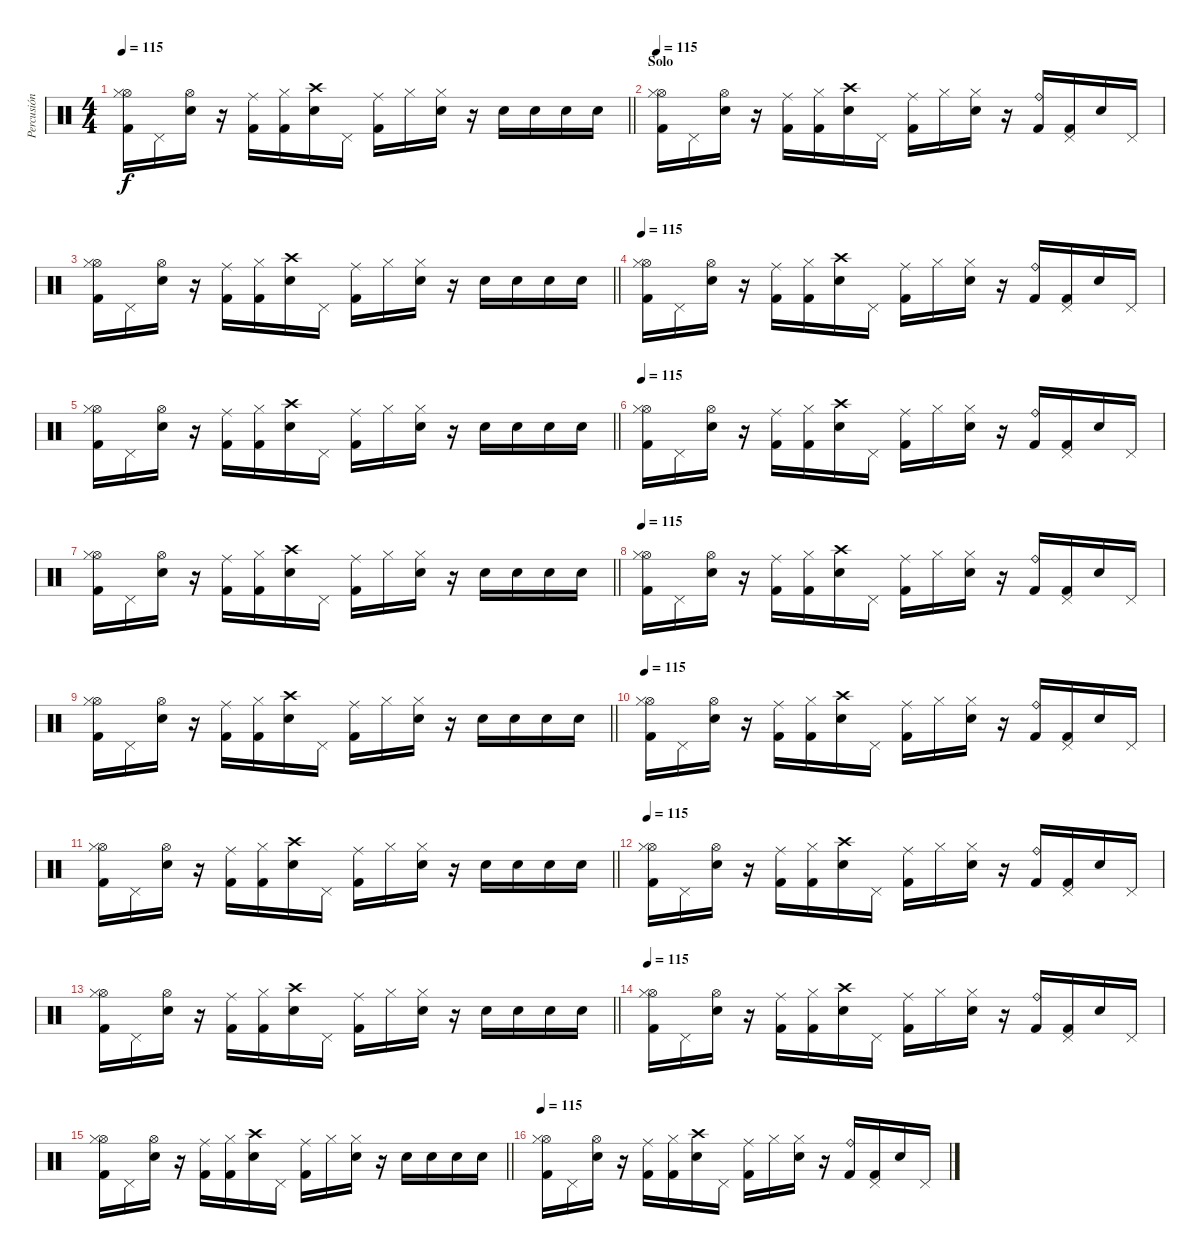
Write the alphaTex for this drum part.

\track ("Percusión" "Percusión") {instrument percussion}
\staff {score}
\articulation defaults
\ts (4 4)
\tempo 115
\clef neutral
\barLineRight lightlight
\ks c
("Kick (hit) 2" "Hi-Hat (open)" "Hi-Hat (closed)").16{dy f} "Pedal Hi-Hat (hit)".16 ("Hi-Hat (open)" "Electric Snare (hit)").16 r.16 ("Kick (hit) 2" "Ride (middle)").16 ("Kick (hit) 2" "Hi-Hat (closed)").16 ("Crash high (hit)" "Electric Snare (hit)").16 "Pedal Hi-Hat (hit)".16 ("Kick (hit) 2" "Ride (middle)").16 "Hi-Hat (closed)".16 ("Electric Snare (hit)" "Hi-Hat (closed)").16 r.16 "Electric Snare (hit)".16 "Electric Snare (hit)".16 "Electric Snare (hit)".16 "Electric Snare (hit)".16 |
\section ("" "Solo")
\tempo 115
("Kick (hit) 2" "Hi-Hat (open)" "Hi-Hat (closed)").16 "Pedal Hi-Hat (hit)".16 ("Hi-Hat (open)" "Electric Snare (hit)").16 r.16 ("Kick (hit) 2" "Ride (middle)").16 ("Kick (hit) 2" "Hi-Hat (closed)").16 ("Crash high (hit)" "Electric Snare (hit)").16 "Pedal Hi-Hat (hit)".16 ("Kick (hit) 2" "Ride (middle)").16 "Hi-Hat (closed)".16 ("Electric Snare (hit)" "Hi-Hat (closed)").16 r.16 ("Kick (hit) 2" "Ride (bell)").16 ("Kick (hit) 2" "Pedal Hi-Hat (hit)").16 "Electric Snare (hit)".16 "Pedal Hi-Hat (hit)".16 |
\barLineRight lightlight
("Kick (hit) 2" "Hi-Hat (open)" "Hi-Hat (closed)").16 "Pedal Hi-Hat (hit)".16 ("Hi-Hat (open)" "Electric Snare (hit)").16 r.16 ("Kick (hit) 2" "Ride (middle)").16 ("Kick (hit) 2" "Hi-Hat (closed)").16 ("Crash high (hit)" "Electric Snare (hit)").16 "Pedal Hi-Hat (hit)".16 ("Kick (hit) 2" "Ride (middle)").16 "Hi-Hat (closed)".16 ("Electric Snare (hit)" "Hi-Hat (closed)").16 r.16 "Electric Snare (hit)".16 "Electric Snare (hit)".16 "Electric Snare (hit)".16 "Electric Snare (hit)".16 |
\tempo 115
("Kick (hit) 2" "Hi-Hat (open)" "Hi-Hat (closed)").16 "Pedal Hi-Hat (hit)".16 ("Hi-Hat (open)" "Electric Snare (hit)").16 r.16 ("Kick (hit) 2" "Ride (middle)").16 ("Kick (hit) 2" "Hi-Hat (closed)").16 ("Crash high (hit)" "Electric Snare (hit)").16 "Pedal Hi-Hat (hit)".16 ("Kick (hit) 2" "Ride (middle)").16 "Hi-Hat (closed)".16 ("Electric Snare (hit)" "Hi-Hat (closed)").16 r.16 ("Kick (hit) 2" "Ride (bell)").16 ("Kick (hit) 2" "Pedal Hi-Hat (hit)").16 "Electric Snare (hit)".16 "Pedal Hi-Hat (hit)".16 |
\barLineRight lightlight
("Kick (hit) 2" "Hi-Hat (open)" "Hi-Hat (closed)").16 "Pedal Hi-Hat (hit)".16 ("Hi-Hat (open)" "Electric Snare (hit)").16 r.16 ("Kick (hit) 2" "Ride (middle)").16 ("Kick (hit) 2" "Hi-Hat (closed)").16 ("Crash high (hit)" "Electric Snare (hit)").16 "Pedal Hi-Hat (hit)".16 ("Kick (hit) 2" "Ride (middle)").16 "Hi-Hat (closed)".16 ("Electric Snare (hit)" "Hi-Hat (closed)").16 r.16 "Electric Snare (hit)".16 "Electric Snare (hit)".16 "Electric Snare (hit)".16 "Electric Snare (hit)".16 |
\tempo 115
("Kick (hit) 2" "Hi-Hat (open)" "Hi-Hat (closed)").16 "Pedal Hi-Hat (hit)".16 ("Hi-Hat (open)" "Electric Snare (hit)").16 r.16 ("Kick (hit) 2" "Ride (middle)").16 ("Kick (hit) 2" "Hi-Hat (closed)").16 ("Crash high (hit)" "Electric Snare (hit)").16 "Pedal Hi-Hat (hit)".16 ("Kick (hit) 2" "Ride (middle)").16 "Hi-Hat (closed)".16 ("Electric Snare (hit)" "Hi-Hat (closed)").16 r.16 ("Kick (hit) 2" "Ride (bell)").16 ("Kick (hit) 2" "Pedal Hi-Hat (hit)").16 "Electric Snare (hit)".16 "Pedal Hi-Hat (hit)".16 |
\barLineRight lightlight
("Kick (hit) 2" "Hi-Hat (open)" "Hi-Hat (closed)").16 "Pedal Hi-Hat (hit)".16 ("Hi-Hat (open)" "Electric Snare (hit)").16 r.16 ("Kick (hit) 2" "Ride (middle)").16 ("Kick (hit) 2" "Hi-Hat (closed)").16 ("Crash high (hit)" "Electric Snare (hit)").16 "Pedal Hi-Hat (hit)".16 ("Kick (hit) 2" "Ride (middle)").16 "Hi-Hat (closed)".16 ("Electric Snare (hit)" "Hi-Hat (closed)").16 r.16 "Electric Snare (hit)".16 "Electric Snare (hit)".16 "Electric Snare (hit)".16 "Electric Snare (hit)".16 |
\tempo 115
("Kick (hit) 2" "Hi-Hat (open)" "Hi-Hat (closed)").16 "Pedal Hi-Hat (hit)".16 ("Hi-Hat (open)" "Electric Snare (hit)").16 r.16 ("Kick (hit) 2" "Ride (middle)").16 ("Kick (hit) 2" "Hi-Hat (closed)").16 ("Crash high (hit)" "Electric Snare (hit)").16 "Pedal Hi-Hat (hit)".16 ("Kick (hit) 2" "Ride (middle)").16 "Hi-Hat (closed)".16 ("Electric Snare (hit)" "Hi-Hat (closed)").16 r.16 ("Kick (hit) 2" "Ride (bell)").16 ("Kick (hit) 2" "Pedal Hi-Hat (hit)").16 "Electric Snare (hit)".16 "Pedal Hi-Hat (hit)".16 |
\barLineRight lightlight
("Kick (hit) 2" "Hi-Hat (open)" "Hi-Hat (closed)").16 "Pedal Hi-Hat (hit)".16 ("Hi-Hat (open)" "Electric Snare (hit)").16 r.16 ("Kick (hit) 2" "Ride (middle)").16 ("Kick (hit) 2" "Hi-Hat (closed)").16 ("Crash high (hit)" "Electric Snare (hit)").16 "Pedal Hi-Hat (hit)".16 ("Kick (hit) 2" "Ride (middle)").16 "Hi-Hat (closed)".16 ("Electric Snare (hit)" "Hi-Hat (closed)").16 r.16 "Electric Snare (hit)".16 "Electric Snare (hit)".16 "Electric Snare (hit)".16 "Electric Snare (hit)".16 |
\tempo 115
("Kick (hit) 2" "Hi-Hat (open)" "Hi-Hat (closed)").16 "Pedal Hi-Hat (hit)".16 ("Hi-Hat (open)" "Electric Snare (hit)").16 r.16 ("Kick (hit) 2" "Ride (middle)").16 ("Kick (hit) 2" "Hi-Hat (closed)").16 ("Crash high (hit)" "Electric Snare (hit)").16 "Pedal Hi-Hat (hit)".16 ("Kick (hit) 2" "Ride (middle)").16 "Hi-Hat (closed)".16 ("Electric Snare (hit)" "Hi-Hat (closed)").16 r.16 ("Kick (hit) 2" "Ride (bell)").16 ("Kick (hit) 2" "Pedal Hi-Hat (hit)").16 "Electric Snare (hit)".16 "Pedal Hi-Hat (hit)".16 |
\barLineRight lightlight
("Kick (hit) 2" "Hi-Hat (open)" "Hi-Hat (closed)").16 "Pedal Hi-Hat (hit)".16 ("Hi-Hat (open)" "Electric Snare (hit)").16 r.16 ("Kick (hit) 2" "Ride (middle)").16 ("Kick (hit) 2" "Hi-Hat (closed)").16 ("Crash high (hit)" "Electric Snare (hit)").16 "Pedal Hi-Hat (hit)".16 ("Kick (hit) 2" "Ride (middle)").16 "Hi-Hat (closed)".16 ("Electric Snare (hit)" "Hi-Hat (closed)").16 r.16 "Electric Snare (hit)".16 "Electric Snare (hit)".16 "Electric Snare (hit)".16 "Electric Snare (hit)".16 |
\tempo 115
("Kick (hit) 2" "Hi-Hat (open)" "Hi-Hat (closed)").16 "Pedal Hi-Hat (hit)".16 ("Hi-Hat (open)" "Electric Snare (hit)").16 r.16 ("Kick (hit) 2" "Ride (middle)").16 ("Kick (hit) 2" "Hi-Hat (closed)").16 ("Crash high (hit)" "Electric Snare (hit)").16 "Pedal Hi-Hat (hit)".16 ("Kick (hit) 2" "Ride (middle)").16 "Hi-Hat (closed)".16 ("Electric Snare (hit)" "Hi-Hat (closed)").16 r.16 ("Kick (hit) 2" "Ride (bell)").16 ("Kick (hit) 2" "Pedal Hi-Hat (hit)").16 "Electric Snare (hit)".16 "Pedal Hi-Hat (hit)".16 |
\barLineRight lightlight
("Kick (hit) 2" "Hi-Hat (open)" "Hi-Hat (closed)").16 "Pedal Hi-Hat (hit)".16 ("Hi-Hat (open)" "Electric Snare (hit)").16 r.16 ("Kick (hit) 2" "Ride (middle)").16 ("Kick (hit) 2" "Hi-Hat (closed)").16 ("Crash high (hit)" "Electric Snare (hit)").16 "Pedal Hi-Hat (hit)".16 ("Kick (hit) 2" "Ride (middle)").16 "Hi-Hat (closed)".16 ("Electric Snare (hit)" "Hi-Hat (closed)").16 r.16 "Electric Snare (hit)".16 "Electric Snare (hit)".16 "Electric Snare (hit)".16 "Electric Snare (hit)".16 |
\tempo 115
("Kick (hit) 2" "Hi-Hat (open)" "Hi-Hat (closed)").16 "Pedal Hi-Hat (hit)".16 ("Hi-Hat (open)" "Electric Snare (hit)").16 r.16 ("Kick (hit) 2" "Ride (middle)").16 ("Kick (hit) 2" "Hi-Hat (closed)").16 ("Crash high (hit)" "Electric Snare (hit)").16 "Pedal Hi-Hat (hit)".16 ("Kick (hit) 2" "Ride (middle)").16 "Hi-Hat (closed)".16 ("Electric Snare (hit)" "Hi-Hat (closed)").16 r.16 ("Kick (hit) 2" "Ride (bell)").16 ("Kick (hit) 2" "Pedal Hi-Hat (hit)").16 "Electric Snare (hit)".16 "Pedal Hi-Hat (hit)".16 |
\barLineRight lightlight
("Kick (hit) 2" "Hi-Hat (open)" "Hi-Hat (closed)").16 "Pedal Hi-Hat (hit)".16 ("Hi-Hat (open)" "Electric Snare (hit)").16 r.16 ("Kick (hit) 2" "Ride (middle)").16 ("Kick (hit) 2" "Hi-Hat (closed)").16 ("Crash high (hit)" "Electric Snare (hit)").16 "Pedal Hi-Hat (hit)".16 ("Kick (hit) 2" "Ride (middle)").16 "Hi-Hat (closed)".16 ("Electric Snare (hit)" "Hi-Hat (closed)").16 r.16 "Electric Snare (hit)".16 "Electric Snare (hit)".16 "Electric Snare (hit)".16 "Electric Snare (hit)".16 |
\tempo 115
("Kick (hit) 2" "Hi-Hat (open)" "Hi-Hat (closed)").16 "Pedal Hi-Hat (hit)".16 ("Hi-Hat (open)" "Electric Snare (hit)").16 r.16 ("Kick (hit) 2" "Ride (middle)").16 ("Kick (hit) 2" "Hi-Hat (closed)").16 ("Crash high (hit)" "Electric Snare (hit)").16 "Pedal Hi-Hat (hit)".16 ("Kick (hit) 2" "Ride (middle)").16 "Hi-Hat (closed)".16 ("Electric Snare (hit)" "Hi-Hat (closed)").16 r.16 ("Kick (hit) 2" "Ride (bell)").16 ("Kick (hit) 2" "Pedal Hi-Hat (hit)").16 "Electric Snare (hit)".16 "Pedal Hi-Hat (hit)".16
